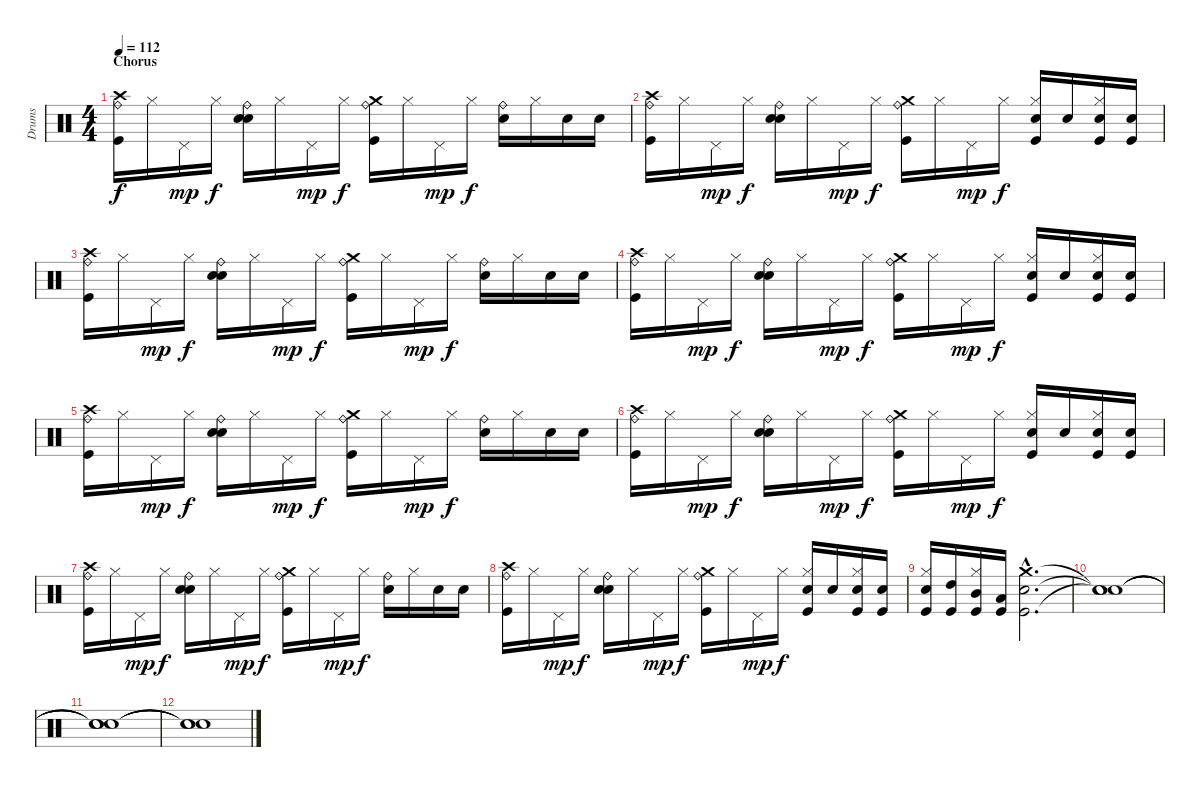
\track ("Drums" "Drums") {instrument percussion}
\staff {score}
\articulation defaults
\ts (4 4)
\section ("" "Chorus")
\tempo 112
\clef neutral
\ks c
("Ride (bell)" "Kick (hit)" "Crash high (hit)").16{dy f} "Hi-Hat (closed)".16 "Pedal Hi-Hat (hit)".16{dy mp} "Hi-Hat (closed)".16{dy f} ("Ride (bell)" "Snare (hit) 2" "Electric Snare (hit)").16 "Hi-Hat (closed)".16 "Pedal Hi-Hat (hit)".16{dy mp} "Hi-Hat (closed)".16{dy f} ("Ride (bell)" "Kick (hit)" "Crash medium (hit)").16 "Hi-Hat (closed)".16 "Pedal Hi-Hat (hit)".16{dy mp} "Hi-Hat (closed)".16{dy f} ("Ride (bell)" "Snare (hit) 2").16 "Hi-Hat (closed)".16 "Electric Snare (hit)".16 "Electric Snare (hit)".16 |
("Ride (bell)" "Kick (hit)" "Crash high (hit)").16 "Hi-Hat (closed)".16 "Pedal Hi-Hat (hit)".16{dy mp} "Hi-Hat (closed)".16{dy f} ("Ride (bell)" "Snare (hit) 2" "Electric Snare (hit)").16 "Hi-Hat (closed)".16 "Pedal Hi-Hat (hit)".16{dy mp} "Hi-Hat (closed)".16{dy f} ("Ride (bell)" "Kick (hit)" "Crash medium (hit)").16 "Hi-Hat (closed)".16 "Pedal Hi-Hat (hit)".16{dy mp} "Hi-Hat (closed)".16{dy f} ("Hi-Hat (closed)" "Electric Snare (hit)" "Kick (hit)").16 "Electric Snare (hit)".16 ("Hi-Hat (closed)" "Electric Snare (hit)" "Kick (hit)").16 ("Electric Snare (hit)" "Kick (hit)").16 |
("Ride (bell)" "Kick (hit)" "Crash high (hit)").16 "Hi-Hat (closed)".16 "Pedal Hi-Hat (hit)".16{dy mp} "Hi-Hat (closed)".16{dy f} ("Ride (bell)" "Snare (hit) 2" "Electric Snare (hit)").16 "Hi-Hat (closed)".16 "Pedal Hi-Hat (hit)".16{dy mp} "Hi-Hat (closed)".16{dy f} ("Ride (bell)" "Kick (hit)" "Crash medium (hit)").16 "Hi-Hat (closed)".16 "Pedal Hi-Hat (hit)".16{dy mp} "Hi-Hat (closed)".16{dy f} ("Ride (bell)" "Snare (hit) 2").16 "Hi-Hat (closed)".16 "Electric Snare (hit)".16 "Electric Snare (hit)".16 |
("Ride (bell)" "Kick (hit)" "Crash high (hit)").16 "Hi-Hat (closed)".16 "Pedal Hi-Hat (hit)".16{dy mp} "Hi-Hat (closed)".16{dy f} ("Ride (bell)" "Snare (hit) 2" "Electric Snare (hit)").16 "Hi-Hat (closed)".16 "Pedal Hi-Hat (hit)".16{dy mp} "Hi-Hat (closed)".16{dy f} ("Ride (bell)" "Kick (hit)" "Crash medium (hit)").16 "Hi-Hat (closed)".16 "Pedal Hi-Hat (hit)".16{dy mp} "Hi-Hat (closed)".16{dy f} ("Hi-Hat (closed)" "Electric Snare (hit)" "Kick (hit)").16 "Electric Snare (hit)".16 ("Hi-Hat (closed)" "Electric Snare (hit)" "Kick (hit)").16 ("Electric Snare (hit)" "Kick (hit)").16 |
("Ride (bell)" "Kick (hit)" "Crash high (hit)").16 "Hi-Hat (closed)".16 "Pedal Hi-Hat (hit)".16{dy mp} "Hi-Hat (closed)".16{dy f} ("Ride (bell)" "Snare (hit) 2" "Electric Snare (hit)").16 "Hi-Hat (closed)".16 "Pedal Hi-Hat (hit)".16{dy mp} "Hi-Hat (closed)".16{dy f} ("Ride (bell)" "Kick (hit)" "Crash medium (hit)").16 "Hi-Hat (closed)".16 "Pedal Hi-Hat (hit)".16{dy mp} "Hi-Hat (closed)".16{dy f} ("Ride (bell)" "Snare (hit) 2").16 "Hi-Hat (closed)".16 "Electric Snare (hit)".16 "Electric Snare (hit)".16 |
("Ride (bell)" "Kick (hit)" "Crash high (hit)").16 "Hi-Hat (closed)".16 "Pedal Hi-Hat (hit)".16{dy mp} "Hi-Hat (closed)".16{dy f} ("Ride (bell)" "Snare (hit) 2" "Electric Snare (hit)").16 "Hi-Hat (closed)".16 "Pedal Hi-Hat (hit)".16{dy mp} "Hi-Hat (closed)".16{dy f} ("Ride (bell)" "Kick (hit)" "Crash medium (hit)").16 "Hi-Hat (closed)".16 "Pedal Hi-Hat (hit)".16{dy mp} "Hi-Hat (closed)".16{dy f} ("Hi-Hat (closed)" "Electric Snare (hit)" "Kick (hit)").16 "Electric Snare (hit)".16 ("Hi-Hat (closed)" "Electric Snare (hit)" "Kick (hit)").16 ("Electric Snare (hit)" "Kick (hit)").16 |
("Ride (bell)" "Kick (hit)" "Crash high (hit)").16 "Hi-Hat (closed)".16 "Pedal Hi-Hat (hit)".16{dy mp} "Hi-Hat (closed)".16{dy f} ("Ride (bell)" "Snare (hit) 2" "Electric Snare (hit)").16 "Hi-Hat (closed)".16 "Pedal Hi-Hat (hit)".16{dy mp} "Hi-Hat (closed)".16{dy f} ("Ride (bell)" "Kick (hit)" "Crash medium (hit)").16 "Hi-Hat (closed)".16 "Pedal Hi-Hat (hit)".16{dy mp} "Hi-Hat (closed)".16{dy f} ("Ride (bell)" "Snare (hit) 2").16 "Hi-Hat (closed)".16 "Electric Snare (hit)".16 "Electric Snare (hit)".16 |
("Ride (bell)" "Kick (hit)" "Crash high (hit)").16 "Hi-Hat (closed)".16 "Pedal Hi-Hat (hit)".16{dy mp} "Hi-Hat (closed)".16{dy f} ("Ride (bell)" "Snare (hit) 2" "Electric Snare (hit)").16 "Hi-Hat (closed)".16 "Pedal Hi-Hat (hit)".16{dy mp} "Hi-Hat (closed)".16{dy f} ("Ride (bell)" "Kick (hit)" "Crash medium (hit)").16 "Hi-Hat (closed)".16 "Pedal Hi-Hat (hit)".16{dy mp} "Hi-Hat (closed)".16{dy f} ("Hi-Hat (closed)" "Electric Snare (hit)" "Kick (hit)").16 "Electric Snare (hit)".16 ("Hi-Hat (closed)" "Electric Snare (hit)" "Kick (hit)").16 ("Electric Snare (hit)" "Kick (hit)").16 |
("Hi-Hat (closed)" "Electric Snare (hit)" "Kick (hit)").16 ("High Tom (hit)" "Kick (hit)").16 ("Hi-Hat (closed)" "Mid Tom (hit)" "Kick (hit)").16 ("Low Tom (hit)" "Kick (hit)").16 ("Crash medium (hit)"{hac} "Electric Snare (hit)"{hac} "Kick (hit)"{hac}).2{d} |
("Snare (hit)"{t} "Snare (hit)"{t} "Snare (hit)"{t}).1 |
("Snare (hit)"{t} "Snare (hit)"{t} "Snare (hit)"{t}).1 |
("Snare (hit)"{t} "Snare (hit)"{t} "Snare (hit)"{t}).1
